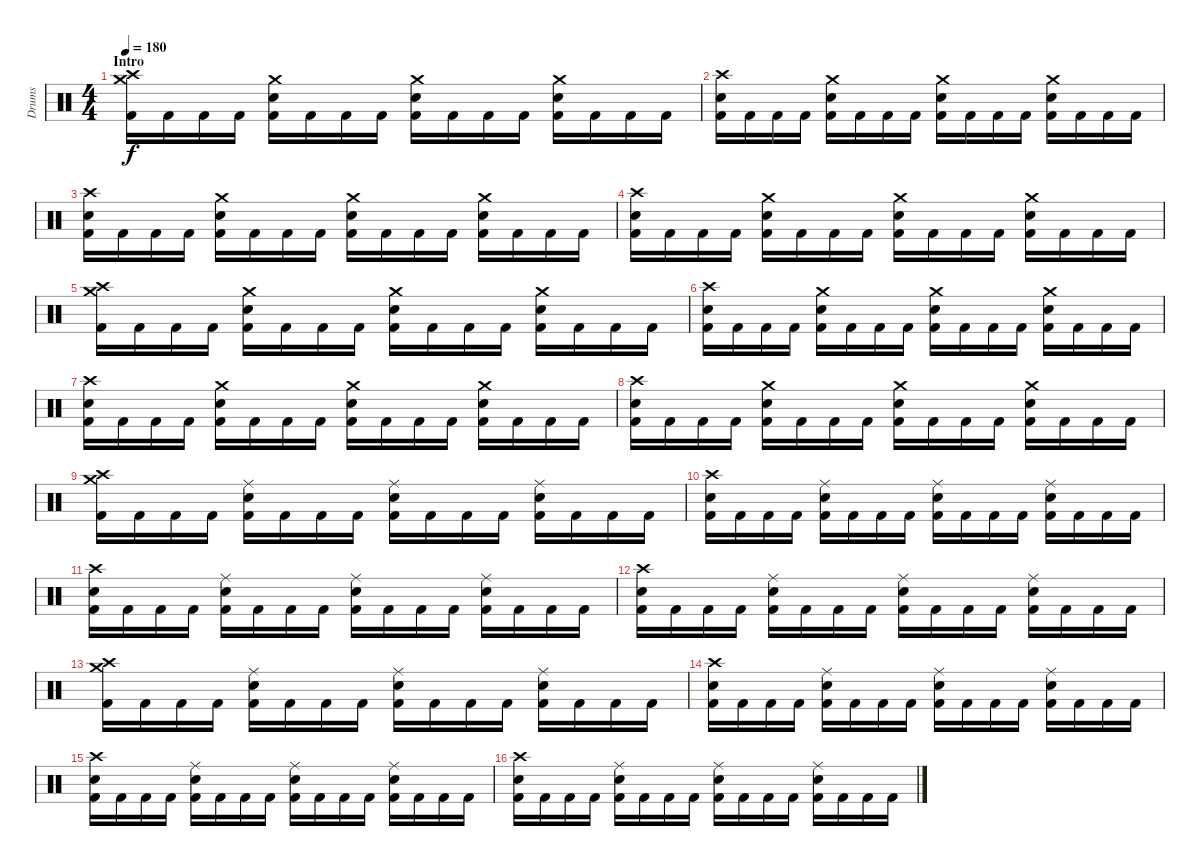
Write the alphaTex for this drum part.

\track ("Drums" "Drums") {instrument percussion}
\staff {score}
\articulation defaults
\ts (4 4)
\section ("" "Intro")
\tempo 180
\clef neutral
\ks c
("Crash high (hit)" "Crash medium (hit)" "Kick (hit) 2").16{dy f} "Kick (hit) 2".16 "Kick (hit) 2".16 "Kick (hit) 2".16 ("Crash medium (hit)" "Snare (hit) 2" "Kick (hit) 2").16 "Kick (hit) 2".16 "Kick (hit) 2".16 "Kick (hit) 2".16 ("Crash medium (hit)" "Snare (hit) 2" "Kick (hit) 2").16 "Kick (hit) 2".16 "Kick (hit) 2".16 "Kick (hit) 2".16 ("Crash medium (hit)" "Snare (hit) 2" "Kick (hit) 2").16 "Kick (hit) 2".16 "Kick (hit) 2".16 "Kick (hit) 2".16 |
("Crash high (hit)" "Snare (hit) 2" "Kick (hit) 2").16 "Kick (hit) 2".16 "Kick (hit) 2".16 "Kick (hit) 2".16 ("Crash medium (hit)" "Snare (hit) 2" "Kick (hit) 2").16 "Kick (hit) 2".16 "Kick (hit) 2".16 "Kick (hit) 2".16 ("Crash medium (hit)" "Snare (hit) 2" "Kick (hit) 2").16 "Kick (hit) 2".16 "Kick (hit) 2".16 "Kick (hit) 2".16 ("Crash medium (hit)" "Snare (hit) 2" "Kick (hit) 2").16 "Kick (hit) 2".16 "Kick (hit) 2".16 "Kick (hit) 2".16 |
("Crash high (hit)" "Snare (hit) 2" "Kick (hit) 2").16 "Kick (hit) 2".16 "Kick (hit) 2".16 "Kick (hit) 2".16 ("Crash medium (hit)" "Snare (hit) 2" "Kick (hit) 2").16 "Kick (hit) 2".16 "Kick (hit) 2".16 "Kick (hit) 2".16 ("Crash medium (hit)" "Snare (hit) 2" "Kick (hit) 2").16 "Kick (hit) 2".16 "Kick (hit) 2".16 "Kick (hit) 2".16 ("Crash medium (hit)" "Snare (hit) 2" "Kick (hit) 2").16 "Kick (hit) 2".16 "Kick (hit) 2".16 "Kick (hit) 2".16 |
("Crash high (hit)" "Snare (hit) 2" "Kick (hit) 2").16 "Kick (hit) 2".16 "Kick (hit) 2".16 "Kick (hit) 2".16 ("Crash medium (hit)" "Snare (hit) 2" "Kick (hit) 2").16 "Kick (hit) 2".16 "Kick (hit) 2".16 "Kick (hit) 2".16 ("Crash medium (hit)" "Snare (hit) 2" "Kick (hit) 2").16 "Kick (hit) 2".16 "Kick (hit) 2".16 "Kick (hit) 2".16 ("Crash medium (hit)" "Snare (hit) 2" "Kick (hit) 2").16 "Kick (hit) 2".16 "Kick (hit) 2".16 "Kick (hit) 2".16 |
("Crash high (hit)" "Crash medium (hit)" "Kick (hit) 2").16 "Kick (hit) 2".16 "Kick (hit) 2".16 "Kick (hit) 2".16 ("Crash medium (hit)" "Snare (hit) 2" "Kick (hit) 2").16 "Kick (hit) 2".16 "Kick (hit) 2".16 "Kick (hit) 2".16 ("Crash medium (hit)" "Snare (hit) 2" "Kick (hit) 2").16 "Kick (hit) 2".16 "Kick (hit) 2".16 "Kick (hit) 2".16 ("Crash medium (hit)" "Snare (hit) 2" "Kick (hit) 2").16 "Kick (hit) 2".16 "Kick (hit) 2".16 "Kick (hit) 2".16 |
("Crash high (hit)" "Snare (hit) 2" "Kick (hit) 2").16 "Kick (hit) 2".16 "Kick (hit) 2".16 "Kick (hit) 2".16 ("Crash medium (hit)" "Snare (hit) 2" "Kick (hit) 2").16 "Kick (hit) 2".16 "Kick (hit) 2".16 "Kick (hit) 2".16 ("Crash medium (hit)" "Snare (hit) 2" "Kick (hit) 2").16 "Kick (hit) 2".16 "Kick (hit) 2".16 "Kick (hit) 2".16 ("Crash medium (hit)" "Snare (hit) 2" "Kick (hit) 2").16 "Kick (hit) 2".16 "Kick (hit) 2".16 "Kick (hit) 2".16 |
("Crash high (hit)" "Snare (hit) 2" "Kick (hit) 2").16 "Kick (hit) 2".16 "Kick (hit) 2".16 "Kick (hit) 2".16 ("Crash medium (hit)" "Snare (hit) 2" "Kick (hit) 2").16 "Kick (hit) 2".16 "Kick (hit) 2".16 "Kick (hit) 2".16 ("Crash medium (hit)" "Snare (hit) 2" "Kick (hit) 2").16 "Kick (hit) 2".16 "Kick (hit) 2".16 "Kick (hit) 2".16 ("Crash medium (hit)" "Snare (hit) 2" "Kick (hit) 2").16 "Kick (hit) 2".16 "Kick (hit) 2".16 "Kick (hit) 2".16 |
("Crash high (hit)" "Snare (hit) 2" "Kick (hit) 2").16 "Kick (hit) 2".16 "Kick (hit) 2".16 "Kick (hit) 2".16 ("Crash medium (hit)" "Snare (hit) 2" "Kick (hit) 2").16 "Kick (hit) 2".16 "Kick (hit) 2".16 "Kick (hit) 2".16 ("Crash medium (hit)" "Snare (hit) 2" "Kick (hit) 2").16 "Kick (hit) 2".16 "Kick (hit) 2".16 "Kick (hit) 2".16 ("Crash medium (hit)" "Snare (hit) 2" "Kick (hit) 2").16 "Kick (hit) 2".16 "Kick (hit) 2".16 "Kick (hit) 2".16 |
("Crash high (hit)" "Crash medium (hit)" "Kick (hit) 2").16 "Kick (hit) 2".16 "Kick (hit) 2".16 "Kick (hit) 2".16 ("Ride (middle)" "Snare (hit) 2" "Kick (hit) 2").16 "Kick (hit) 2".16 "Kick (hit) 2".16 "Kick (hit) 2".16 ("Ride (middle)" "Snare (hit) 2" "Kick (hit) 2").16 "Kick (hit) 2".16 "Kick (hit) 2".16 "Kick (hit) 2".16 ("Ride (middle)" "Snare (hit) 2" "Kick (hit) 2").16 "Kick (hit) 2".16 "Kick (hit) 2".16 "Kick (hit) 2".16 |
("Crash high (hit)" "Snare (hit) 2" "Kick (hit) 2").16 "Kick (hit) 2".16 "Kick (hit) 2".16 "Kick (hit) 2".16 ("Ride (middle)" "Snare (hit) 2" "Kick (hit) 2").16 "Kick (hit) 2".16 "Kick (hit) 2".16 "Kick (hit) 2".16 ("Ride (middle)" "Snare (hit) 2" "Kick (hit) 2").16 "Kick (hit) 2".16 "Kick (hit) 2".16 "Kick (hit) 2".16 ("Ride (middle)" "Snare (hit) 2" "Kick (hit) 2").16 "Kick (hit) 2".16 "Kick (hit) 2".16 "Kick (hit) 2".16 |
("Crash high (hit)" "Snare (hit) 2" "Kick (hit) 2").16 "Kick (hit) 2".16 "Kick (hit) 2".16 "Kick (hit) 2".16 ("Ride (middle)" "Snare (hit) 2" "Kick (hit) 2").16 "Kick (hit) 2".16 "Kick (hit) 2".16 "Kick (hit) 2".16 ("Ride (middle)" "Snare (hit) 2" "Kick (hit) 2").16 "Kick (hit) 2".16 "Kick (hit) 2".16 "Kick (hit) 2".16 ("Ride (middle)" "Snare (hit) 2" "Kick (hit) 2").16 "Kick (hit) 2".16 "Kick (hit) 2".16 "Kick (hit) 2".16 |
("Crash high (hit)" "Snare (hit) 2" "Kick (hit) 2").16 "Kick (hit) 2".16 "Kick (hit) 2".16 "Kick (hit) 2".16 ("Ride (middle)" "Snare (hit) 2" "Kick (hit) 2").16 "Kick (hit) 2".16 "Kick (hit) 2".16 "Kick (hit) 2".16 ("Ride (middle)" "Snare (hit) 2" "Kick (hit) 2").16 "Kick (hit) 2".16 "Kick (hit) 2".16 "Kick (hit) 2".16 ("Ride (middle)" "Snare (hit) 2" "Kick (hit) 2").16 "Kick (hit) 2".16 "Kick (hit) 2".16 "Kick (hit) 2".16 |
("Crash high (hit)" "Crash medium (hit)" "Kick (hit) 2").16 "Kick (hit) 2".16 "Kick (hit) 2".16 "Kick (hit) 2".16 ("Ride (middle)" "Snare (hit) 2" "Kick (hit) 2").16 "Kick (hit) 2".16 "Kick (hit) 2".16 "Kick (hit) 2".16 ("Ride (middle)" "Snare (hit) 2" "Kick (hit) 2").16 "Kick (hit) 2".16 "Kick (hit) 2".16 "Kick (hit) 2".16 ("Ride (middle)" "Snare (hit) 2" "Kick (hit) 2").16 "Kick (hit) 2".16 "Kick (hit) 2".16 "Kick (hit) 2".16 |
("Crash high (hit)" "Snare (hit) 2" "Kick (hit) 2").16 "Kick (hit) 2".16 "Kick (hit) 2".16 "Kick (hit) 2".16 ("Ride (middle)" "Snare (hit) 2" "Kick (hit) 2").16 "Kick (hit) 2".16 "Kick (hit) 2".16 "Kick (hit) 2".16 ("Ride (middle)" "Snare (hit) 2" "Kick (hit) 2").16 "Kick (hit) 2".16 "Kick (hit) 2".16 "Kick (hit) 2".16 ("Ride (middle)" "Snare (hit) 2" "Kick (hit) 2").16 "Kick (hit) 2".16 "Kick (hit) 2".16 "Kick (hit) 2".16 |
("Crash high (hit)" "Snare (hit) 2" "Kick (hit) 2").16 "Kick (hit) 2".16 "Kick (hit) 2".16 "Kick (hit) 2".16 ("Ride (middle)" "Snare (hit) 2" "Kick (hit) 2").16 "Kick (hit) 2".16 "Kick (hit) 2".16 "Kick (hit) 2".16 ("Ride (middle)" "Snare (hit) 2" "Kick (hit) 2").16 "Kick (hit) 2".16 "Kick (hit) 2".16 "Kick (hit) 2".16 ("Ride (middle)" "Snare (hit) 2" "Kick (hit) 2").16 "Kick (hit) 2".16 "Kick (hit) 2".16 "Kick (hit) 2".16 |
("Crash high (hit)" "Snare (hit) 2" "Kick (hit) 2").16 "Kick (hit) 2".16 "Kick (hit) 2".16 "Kick (hit) 2".16 ("Ride (middle)" "Snare (hit) 2" "Kick (hit) 2").16 "Kick (hit) 2".16 "Kick (hit) 2".16 "Kick (hit) 2".16 ("Ride (middle)" "Snare (hit) 2" "Kick (hit) 2").16 "Kick (hit) 2".16 "Kick (hit) 2".16 "Kick (hit) 2".16 ("Ride (middle)" "Snare (hit) 2" "Kick (hit) 2").16 "Kick (hit) 2".16 "Kick (hit) 2".16 "Kick (hit) 2".16
